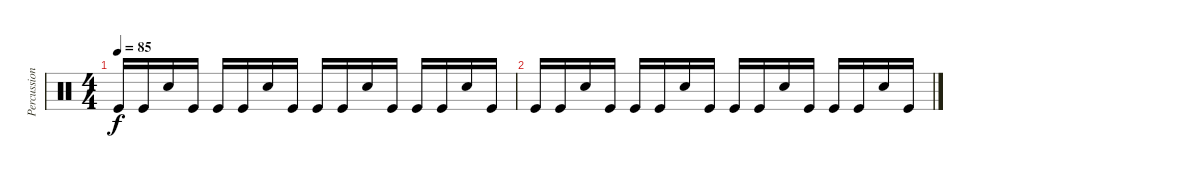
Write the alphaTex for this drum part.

\track ("Percussion" "Percussion") {instrument percussion}
\staff {score}
\articulation defaults
\ts (4 4)
\tempo 85
\clef neutral
\ks c "Kick (hit)".16{dy f} "Kick (hit)".16 "Snare (hit) 2".16 "Kick (hit)".16 "Kick (hit)".16 "Kick (hit)".16 "Snare (hit) 2".16 "Kick (hit)".16 "Kick (hit)".16 "Kick (hit)".16 "Snare (hit) 2".16 "Kick (hit)".16 "Kick (hit)".16 "Kick (hit)".16 "Snare (hit) 2".16 "Kick (hit)".16
|
"Kick (hit)".16 "Kick (hit)".16 "Snare (hit) 2".16 "Kick (hit)".16 "Kick (hit)".16 "Kick (hit)".16 "Snare (hit) 2".16 "Kick (hit)".16 "Kick (hit)".16 "Kick (hit)".16 "Snare (hit) 2".16 "Kick (hit)".16 "Kick (hit)".16 "Kick (hit)".16 "Snare (hit) 2".16 "Kick (hit)".16
